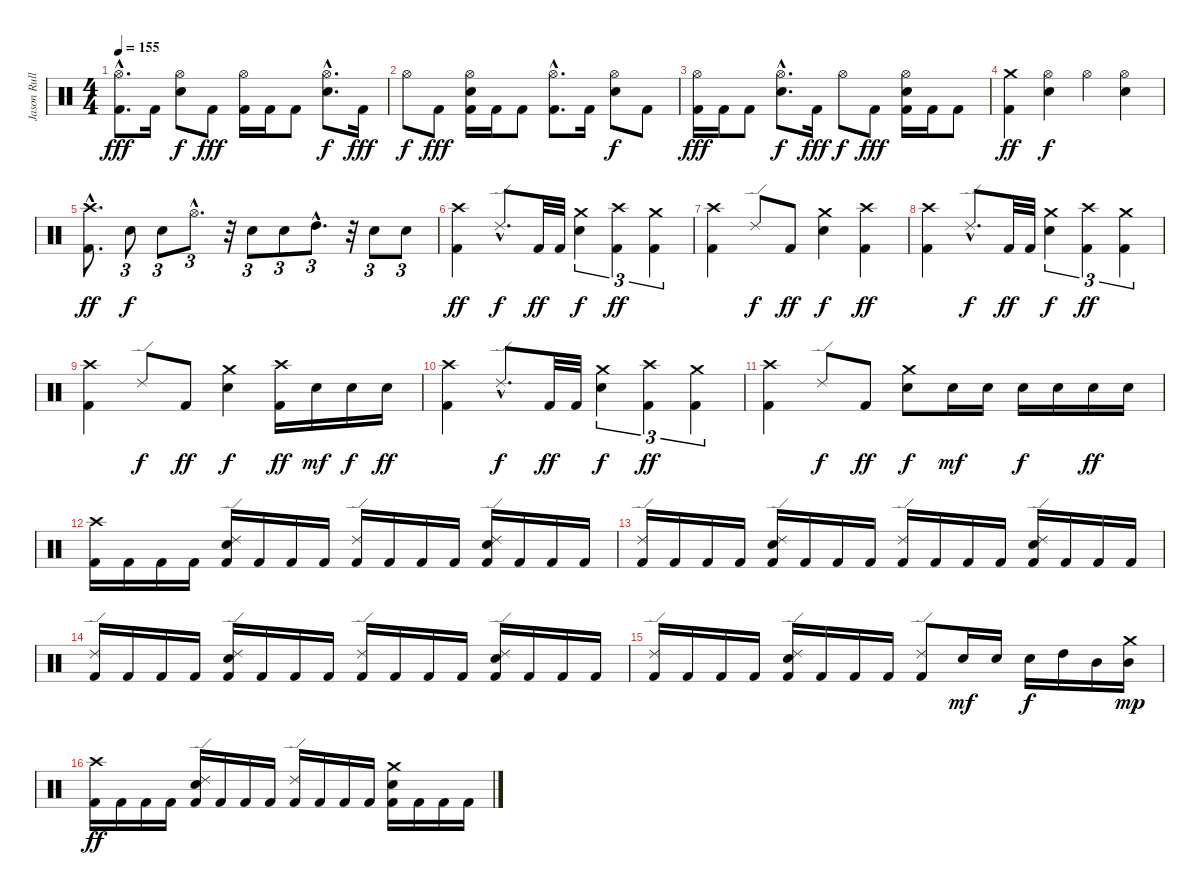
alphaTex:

\track ("Jason Rullo" "Jason Rull") {instrument percussion}
\staff {score}
\articulation defaults
\ts (4 4)
\tempo 155
\clef neutral
\ks c
("Hi-Hat (open)"{hac} "Kick (hit) 2"{hac}).8{d dy fff} "Kick (hit) 2".16 ("Hi-Hat (open)" "Electric Snare (hit)").8{dy f} "Kick (hit) 2".8{dy fff} ("Hi-Hat (open)" "Kick (hit) 2").16 "Kick (hit) 2".16 "Kick (hit) 2".8 ("Hi-Hat (open)"{hac} "Electric Snare (hit)"{hac}).8{d dy f} "Kick (hit) 2".16{dy fff} |
"Hi-Hat (open)".8{dy f} "Kick (hit) 2".8{dy fff} ("Hi-Hat (open)" "Electric Snare (hit)" "Kick (hit) 2").16 "Kick (hit) 2".16 "Kick (hit) 2".8 ("Hi-Hat (open)"{hac} "Kick (hit) 2"{hac}).8{d} "Kick (hit) 2".16 ("Hi-Hat (open)" "Electric Snare (hit)").8{dy f} "Kick (hit) 2".8 |
("Hi-Hat (open)" "Kick (hit) 2").16{dy fff} "Kick (hit) 2".16 "Kick (hit) 2".8 ("Hi-Hat (open)"{hac} "Electric Snare (hit)"{hac}).8{d dy f} "Kick (hit) 2".16{dy fff} "Hi-Hat (open)".8{dy f} "Kick (hit) 2".8{dy fff} ("Hi-Hat (open)" "Electric Snare (hit)" "Kick (hit) 2").16 "Kick (hit) 2".16 "Kick (hit) 2".8 |
("Crash medium (hit)" "Kick (hit) 2").4{dy ff} ("Hi-Hat (open)" "Electric Snare (hit)").4{dy f} "Hi-Hat (open)".4 ("Hi-Hat (open)" "Electric Snare (hit)").4 |
("Crash high (hit)"{hac} "Kick (hit) 2"{hac}).8{d dy ff} "Electric Snare (hit)".8{tu (3 2) dy f} "Electric Snare (hit)".8{tu (3 2)} "Hi-Hat (open)"{hac}.8{d tu (3 2)} r.32 "Electric Snare (hit)".8{tu (3 2)} "Electric Snare (hit)".8{tu (3 2)} "High Tom (hit)"{hac}.8{d tu (3 2)} r.32 "Electric Snare (hit)".8{tu (3 2)} "Electric Snare (hit)".8{tu (3 2)} |
("Crash high (hit)" "Kick (hit) 2").4{dy ff} "Ride (edge) 2"{hac}.8{d dy f} "Kick (hit) 2".32{dy ff} "Kick (hit) 2".32 ("Crash medium (hit)" "Electric Snare (hit)").4{tu (3 2) dy f} ("Crash high (hit)" "Kick (hit) 2").4{tu (3 2) dy ff} ("Crash medium (hit)" "Kick (hit) 2").4{tu (3 2)} |
("Crash high (hit)" "Kick (hit) 2").4 "Ride (edge) 2".8{dy f} "Kick (hit) 2".8{dy ff} ("Crash medium (hit)" "Electric Snare (hit)").4{dy f} ("Crash high (hit)" "Kick (hit) 2").4{dy ff} |
("Crash high (hit)" "Kick (hit) 2").4 "Ride (edge) 2"{hac}.8{d dy f} "Kick (hit) 2".32{dy ff} "Kick (hit) 2".32 ("Crash medium (hit)" "Electric Snare (hit)").4{tu (3 2) dy f} ("Crash high (hit)" "Kick (hit) 2").4{tu (3 2) dy ff} ("Crash medium (hit)" "Kick (hit) 2").4{tu (3 2)} |
("Crash high (hit)" "Kick (hit) 2").4 "Ride (edge) 2".8{dy f} "Kick (hit) 2".8{dy ff} ("Crash medium (hit)" "Electric Snare (hit)").4{dy f} ("Crash high (hit)" "Kick (hit) 2").16{dy ff} "Electric Snare (hit)".16{dy mf} "Electric Snare (hit)".16{dy f} "Electric Snare (hit)".16{dy ff} |
("Crash high (hit)" "Kick (hit) 2").4 "Ride (edge) 2"{hac}.8{d dy f} "Kick (hit) 2".32{dy ff} "Kick (hit) 2".32 ("Crash medium (hit)" "Electric Snare (hit)").4{tu (3 2) dy f} ("Crash high (hit)" "Kick (hit) 2").4{tu (3 2) dy ff} ("Crash medium (hit)" "Kick (hit) 2").4{tu (3 2)} |
("Crash high (hit)" "Kick (hit) 2").4 "Ride (edge) 2".8{dy f} "Kick (hit) 2".8{dy ff} ("Crash medium (hit)" "Electric Snare (hit)").8{dy f} "Electric Snare (hit)".16{dy mf} "Electric Snare (hit)".16 "Electric Snare (hit)".16{dy f} "Electric Snare (hit)".16 "Electric Snare (hit)".16{dy ff} "Electric Snare (hit)".16 |
("Crash high (hit)" "Kick (hit) 2").16 "Kick (hit) 2".16 "Kick (hit) 2".16 "Kick (hit) 2".16 ("Ride (edge) 2" "Electric Snare (hit)" "Kick (hit) 2").16 "Kick (hit) 2".16 "Kick (hit) 2".16 "Kick (hit) 2".16 ("Ride (edge) 2" "Kick (hit) 2").16 "Kick (hit) 2".16 "Kick (hit) 2".16 "Kick (hit) 2".16 ("Ride (edge) 2" "Electric Snare (hit)" "Kick (hit) 2").16 "Kick (hit) 2".16 "Kick (hit) 2".16 "Kick (hit) 2".16 |
("Ride (edge) 2" "Kick (hit) 2").16 "Kick (hit) 2".16 "Kick (hit) 2".16 "Kick (hit) 2".16 ("Ride (edge) 2" "Electric Snare (hit)" "Kick (hit) 2").16 "Kick (hit) 2".16 "Kick (hit) 2".16 "Kick (hit) 2".16 ("Ride (edge) 2" "Kick (hit) 2").16 "Kick (hit) 2".16 "Kick (hit) 2".16 "Kick (hit) 2".16 ("Ride (edge) 2" "Electric Snare (hit)" "Kick (hit) 2").16 "Kick (hit) 2".16 "Kick (hit) 2".16 "Kick (hit) 2".16 |
("Ride (edge) 2" "Kick (hit) 2").16 "Kick (hit) 2".16 "Kick (hit) 2".16 "Kick (hit) 2".16 ("Ride (edge) 2" "Electric Snare (hit)" "Kick (hit) 2").16 "Kick (hit) 2".16 "Kick (hit) 2".16 "Kick (hit) 2".16 ("Ride (edge) 2" "Kick (hit) 2").16 "Kick (hit) 2".16 "Kick (hit) 2".16 "Kick (hit) 2".16 ("Ride (edge) 2" "Electric Snare (hit)" "Kick (hit) 2").16 "Kick (hit) 2".16 "Kick (hit) 2".16 "Kick (hit) 2".16 |
("Ride (edge) 2" "Kick (hit) 2").16 "Kick (hit) 2".16 "Kick (hit) 2".16 "Kick (hit) 2".16 ("Ride (edge) 2" "Electric Snare (hit)" "Kick (hit) 2").16 "Kick (hit) 2".16 "Kick (hit) 2".16 "Kick (hit) 2".16 ("Ride (edge) 2" "Kick (hit) 2").8 "Electric Snare (hit)".16{dy mf} "Electric Snare (hit)".16 "Electric Snare (hit)".16{dy f} "High Tom (hit)".16 "Mid Tom (hit)".16 ("Crash medium (hit)" "Mid Tom (hit)").16{dy mp} |
("Crash high (hit)" "Kick (hit) 2").16{dy ff} "Kick (hit) 2".16 "Kick (hit) 2".16 "Kick (hit) 2".16 ("Ride (edge) 2" "Electric Snare (hit)" "Kick (hit) 2").16 "Kick (hit) 2".16 "Kick (hit) 2".16 "Kick (hit) 2".16 ("Ride (edge) 2" "Kick (hit) 2").16 "Kick (hit) 2".16 "Kick (hit) 2".16 "Kick (hit) 2".16 ("Crash medium (hit)" "Electric Snare (hit)" "Kick (hit) 2").16 "Kick (hit) 2".16 "Kick (hit) 2".16 "Kick (hit) 2".16
